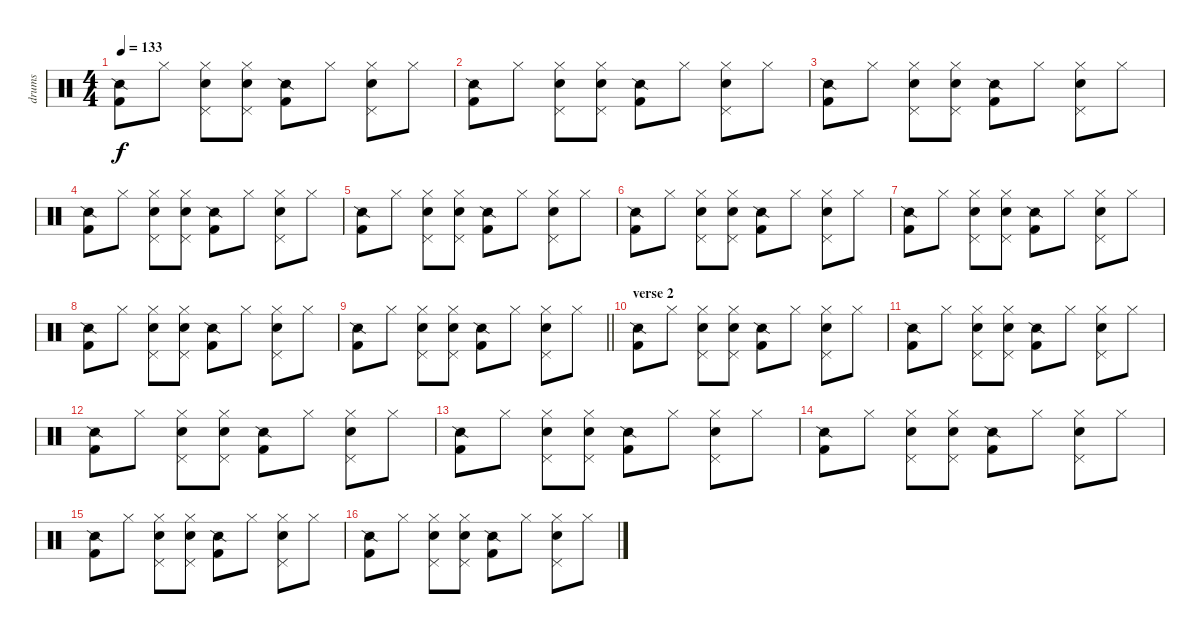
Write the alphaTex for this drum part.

\track ("drums" "drums") {instrument percussion}
\staff {score}
\articulation defaults
\ts (4 4)
\tempo 133
\clef neutral
\ks c
("Snare (side stick) 2" "Kick (hit) 2").8{dy f} "Hi-Hat (closed)".8 ("Hi-Hat (closed)" "Electric Snare (hit)" "Pedal Hi-Hat (hit)").8 ("Hi-Hat (closed)" "Electric Snare (hit)" "Pedal Hi-Hat (hit)").8 ("Snare (side stick) 2" "Kick (hit) 2").8 "Hi-Hat (closed)".8 ("Hi-Hat (closed)" "Electric Snare (hit)" "Pedal Hi-Hat (hit)").8 "Hi-Hat (closed)".8 |
("Snare (side stick) 2" "Kick (hit) 2").8 "Hi-Hat (closed)".8 ("Hi-Hat (closed)" "Electric Snare (hit)" "Pedal Hi-Hat (hit)").8 ("Hi-Hat (closed)" "Electric Snare (hit)" "Pedal Hi-Hat (hit)").8 ("Snare (side stick) 2" "Kick (hit) 2").8 "Hi-Hat (closed)".8 ("Hi-Hat (closed)" "Electric Snare (hit)" "Pedal Hi-Hat (hit)").8 "Hi-Hat (closed)".8 |
("Snare (side stick) 2" "Kick (hit) 2").8 "Hi-Hat (closed)".8 ("Hi-Hat (closed)" "Electric Snare (hit)" "Pedal Hi-Hat (hit)").8 ("Hi-Hat (closed)" "Electric Snare (hit)" "Pedal Hi-Hat (hit)").8 ("Snare (side stick) 2" "Kick (hit) 2").8 "Hi-Hat (closed)".8 ("Hi-Hat (closed)" "Electric Snare (hit)" "Pedal Hi-Hat (hit)").8 "Hi-Hat (closed)".8 |
("Snare (side stick) 2" "Kick (hit) 2").8 "Hi-Hat (closed)".8 ("Hi-Hat (closed)" "Electric Snare (hit)" "Pedal Hi-Hat (hit)").8 ("Hi-Hat (closed)" "Electric Snare (hit)" "Pedal Hi-Hat (hit)").8 ("Snare (side stick) 2" "Kick (hit) 2").8 "Hi-Hat (closed)".8 ("Hi-Hat (closed)" "Electric Snare (hit)" "Pedal Hi-Hat (hit)").8 "Hi-Hat (closed)".8 |
("Snare (side stick) 2" "Kick (hit) 2").8 "Hi-Hat (closed)".8 ("Hi-Hat (closed)" "Electric Snare (hit)" "Pedal Hi-Hat (hit)").8 ("Hi-Hat (closed)" "Electric Snare (hit)" "Pedal Hi-Hat (hit)").8 ("Snare (side stick) 2" "Kick (hit) 2").8 "Hi-Hat (closed)".8 ("Hi-Hat (closed)" "Electric Snare (hit)" "Pedal Hi-Hat (hit)").8 "Hi-Hat (closed)".8 |
("Snare (side stick) 2" "Kick (hit) 2").8 "Hi-Hat (closed)".8 ("Hi-Hat (closed)" "Electric Snare (hit)" "Pedal Hi-Hat (hit)").8 ("Hi-Hat (closed)" "Electric Snare (hit)" "Pedal Hi-Hat (hit)").8 ("Snare (side stick) 2" "Kick (hit) 2").8 "Hi-Hat (closed)".8 ("Hi-Hat (closed)" "Electric Snare (hit)" "Pedal Hi-Hat (hit)").8 "Hi-Hat (closed)".8 |
("Snare (side stick) 2" "Kick (hit) 2").8 "Hi-Hat (closed)".8 ("Hi-Hat (closed)" "Electric Snare (hit)" "Pedal Hi-Hat (hit)").8 ("Hi-Hat (closed)" "Electric Snare (hit)" "Pedal Hi-Hat (hit)").8 ("Snare (side stick) 2" "Kick (hit) 2").8 "Hi-Hat (closed)".8 ("Hi-Hat (closed)" "Electric Snare (hit)" "Pedal Hi-Hat (hit)").8 "Hi-Hat (closed)".8 |
("Snare (side stick) 2" "Kick (hit) 2").8 "Hi-Hat (closed)".8 ("Hi-Hat (closed)" "Electric Snare (hit)" "Pedal Hi-Hat (hit)").8 ("Hi-Hat (closed)" "Electric Snare (hit)" "Pedal Hi-Hat (hit)").8 ("Snare (side stick) 2" "Kick (hit) 2").8 "Hi-Hat (closed)".8 ("Hi-Hat (closed)" "Electric Snare (hit)" "Pedal Hi-Hat (hit)").8 "Hi-Hat (closed)".8 |
\barLineRight lightlight
("Snare (side stick) 2" "Kick (hit) 2").8 "Hi-Hat (closed)".8 ("Hi-Hat (closed)" "Electric Snare (hit)" "Pedal Hi-Hat (hit)").8 ("Hi-Hat (closed)" "Electric Snare (hit)" "Pedal Hi-Hat (hit)").8 ("Snare (side stick) 2" "Kick (hit) 2").8 "Hi-Hat (closed)".8 ("Hi-Hat (closed)" "Electric Snare (hit)" "Pedal Hi-Hat (hit)").8 "Hi-Hat (closed)".8 |
\section ("" "verse 2")
("Snare (side stick) 2" "Kick (hit) 2").8 "Hi-Hat (closed)".8 ("Hi-Hat (closed)" "Electric Snare (hit)" "Pedal Hi-Hat (hit)").8 ("Hi-Hat (closed)" "Electric Snare (hit)" "Pedal Hi-Hat (hit)").8 ("Snare (side stick) 2" "Kick (hit) 2").8 "Hi-Hat (closed)".8 ("Hi-Hat (closed)" "Electric Snare (hit)" "Pedal Hi-Hat (hit)").8 "Hi-Hat (closed)".8 |
("Snare (side stick) 2" "Kick (hit) 2").8 "Hi-Hat (closed)".8 ("Hi-Hat (closed)" "Electric Snare (hit)" "Pedal Hi-Hat (hit)").8 ("Hi-Hat (closed)" "Electric Snare (hit)" "Pedal Hi-Hat (hit)").8 ("Snare (side stick) 2" "Kick (hit) 2").8 "Hi-Hat (closed)".8 ("Hi-Hat (closed)" "Electric Snare (hit)" "Pedal Hi-Hat (hit)").8 "Hi-Hat (closed)".8 |
("Snare (side stick) 2" "Kick (hit) 2").8 "Hi-Hat (closed)".8 ("Hi-Hat (closed)" "Electric Snare (hit)" "Pedal Hi-Hat (hit)").8 ("Hi-Hat (closed)" "Electric Snare (hit)" "Pedal Hi-Hat (hit)").8 ("Snare (side stick) 2" "Kick (hit) 2").8 "Hi-Hat (closed)".8 ("Hi-Hat (closed)" "Electric Snare (hit)" "Pedal Hi-Hat (hit)").8 "Hi-Hat (closed)".8 |
("Snare (side stick) 2" "Kick (hit) 2").8 "Hi-Hat (closed)".8 ("Hi-Hat (closed)" "Electric Snare (hit)" "Pedal Hi-Hat (hit)").8 ("Hi-Hat (closed)" "Electric Snare (hit)" "Pedal Hi-Hat (hit)").8 ("Snare (side stick) 2" "Kick (hit) 2").8 "Hi-Hat (closed)".8 ("Hi-Hat (closed)" "Electric Snare (hit)" "Pedal Hi-Hat (hit)").8 "Hi-Hat (closed)".8 |
("Snare (side stick) 2" "Kick (hit) 2").8 "Hi-Hat (closed)".8 ("Hi-Hat (closed)" "Electric Snare (hit)" "Pedal Hi-Hat (hit)").8 ("Hi-Hat (closed)" "Electric Snare (hit)" "Pedal Hi-Hat (hit)").8 ("Snare (side stick) 2" "Kick (hit) 2").8 "Hi-Hat (closed)".8 ("Hi-Hat (closed)" "Electric Snare (hit)" "Pedal Hi-Hat (hit)").8 "Hi-Hat (closed)".8 |
("Snare (side stick) 2" "Kick (hit) 2").8 "Hi-Hat (closed)".8 ("Hi-Hat (closed)" "Electric Snare (hit)" "Pedal Hi-Hat (hit)").8 ("Hi-Hat (closed)" "Electric Snare (hit)" "Pedal Hi-Hat (hit)").8 ("Snare (side stick) 2" "Kick (hit) 2").8 "Hi-Hat (closed)".8 ("Hi-Hat (closed)" "Electric Snare (hit)" "Pedal Hi-Hat (hit)").8 "Hi-Hat (closed)".8 |
("Snare (side stick) 2" "Kick (hit) 2").8 "Hi-Hat (closed)".8 ("Hi-Hat (closed)" "Electric Snare (hit)" "Pedal Hi-Hat (hit)").8 ("Hi-Hat (closed)" "Electric Snare (hit)" "Pedal Hi-Hat (hit)").8 ("Snare (side stick) 2" "Kick (hit) 2").8 "Hi-Hat (closed)".8 ("Hi-Hat (closed)" "Electric Snare (hit)" "Pedal Hi-Hat (hit)").8 "Hi-Hat (closed)".8
